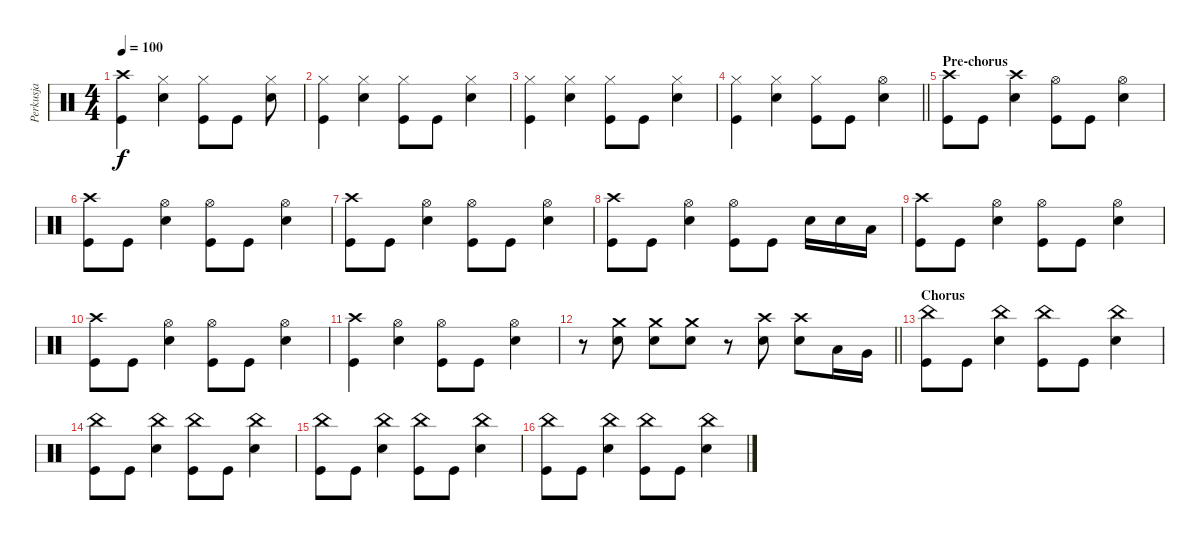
\track ("Perkusja" "Perkusja") {instrument percussion}
\staff {score}
\articulation defaults
\ts (4 4)
\tempo 100
\clef neutral
\ks c
("Crash high (hit)" "Kick (hit)").4{dy f} ("Hi-Hat (closed)" "Snare (hit) 2").4 ("Hi-Hat (closed)" "Kick (hit)").8 "Kick (hit)".8 ("Hi-Hat (closed)" "Snare (hit) 2").8 |
("Hi-Hat (closed)" "Kick (hit)").4 ("Hi-Hat (closed)" "Snare (hit) 2").4 ("Hi-Hat (closed)" "Kick (hit)").8 "Kick (hit)".8 ("Hi-Hat (closed)" "Snare (hit) 2").4 |
("Hi-Hat (closed)" "Kick (hit)").4 ("Hi-Hat (closed)" "Snare (hit) 2").4 ("Hi-Hat (closed)" "Kick (hit)").8 "Kick (hit)".8 ("Hi-Hat (closed)" "Snare (hit) 2").4 |
\barLineRight lightlight
("Hi-Hat (closed)" "Kick (hit)").4 ("Hi-Hat (closed)" "Snare (hit) 2").4 ("Kick (hit)" "Hi-Hat (closed)").8 "Kick (hit)".8 ("Hi-Hat (open)" "Snare (hit) 2").4 |
\section ("" "Pre-chorus")
("Crash high (hit)" "Kick (hit)").8 "Kick (hit)".8 ("Crash high (hit)" "Snare (hit) 2").4 ("Hi-Hat (open)" "Kick (hit)").8 "Kick (hit)".8 ("Hi-Hat (open)" "Snare (hit) 2").4 |
("Crash high (hit)" "Kick (hit)").8 "Kick (hit)".8 ("Hi-Hat (open)" "Snare (hit) 2").4 ("Hi-Hat (open)" "Kick (hit)").8 "Kick (hit)".8 ("Hi-Hat (open)" "Snare (hit) 2").4 |
("Crash high (hit)" "Kick (hit)").8 "Kick (hit)".8 ("Hi-Hat (open)" "Snare (hit) 2").4 ("Hi-Hat (open)" "Kick (hit)").8 "Kick (hit)".8 ("Hi-Hat (open)" "Snare (hit) 2").4 |
("Crash high (hit)" "Kick (hit)").8 "Kick (hit)".8 ("Hi-Hat (open)" "Snare (hit) 2").4 ("Hi-Hat (open)" "Kick (hit)").8 "Kick (hit)".8 "Snare (hit) 2".16 "Snare (hit) 2".16 "Low Tom (hit)".16 |
("Crash high (hit)" "Kick (hit)").8 "Kick (hit)".8 ("Hi-Hat (open)" "Snare (hit) 2").4 ("Hi-Hat (open)" "Kick (hit)").8 "Kick (hit)".8 ("Hi-Hat (open)" "Snare (hit) 2").4 |
("Crash high (hit)" "Kick (hit)").8 "Kick (hit)".8 ("Hi-Hat (open)" "Snare (hit) 2").4 ("Hi-Hat (open)" "Kick (hit)").8 "Kick (hit)".8 ("Hi-Hat (open)" "Snare (hit) 2").4 |
("Crash high (hit)" "Kick (hit)").4 ("Hi-Hat (open)" "Snare (hit) 2").4 ("Hi-Hat (open)" "Kick (hit)").8 "Kick (hit)".8 ("Hi-Hat (open)" "Snare (hit) 2").4 |
\barLineRight lightlight
r.8 ("Snare (hit) 2" "Crash medium (hit)").8 ("Snare (hit) 2" "Crash medium (hit)").8 ("Snare (hit) 2" "Crash medium (hit)").8 r.8 ("Snare (hit) 2" "Crash high (hit)").8 ("Snare (hit) 2" "Crash high (hit)").8 "Low Tom (hit)".16 "Very Low Tom (hit)".16 |
\section ("" "Chorus")
("China (hit)" "Kick (hit)").8 "Kick (hit)".8 ("China (hit)" "Snare (hit) 2").4 ("China (hit)" "Kick (hit)").8 "Kick (hit)".8 ("China (hit)" "Snare (hit) 2").4 |
("China (hit)" "Kick (hit)").8 "Kick (hit)".8 ("China (hit)" "Snare (hit) 2").4 ("China (hit)" "Kick (hit)").8 "Kick (hit)".8 ("China (hit)" "Snare (hit) 2").4 |
("China (hit)" "Kick (hit)").8 "Kick (hit)".8 ("China (hit)" "Snare (hit) 2").4 ("China (hit)" "Kick (hit)").8 "Kick (hit)".8 ("China (hit)" "Snare (hit) 2").4 |
("China (hit)" "Kick (hit)").8 "Kick (hit)".8 ("China (hit)" "Snare (hit) 2").4 ("China (hit)" "Kick (hit)").8 "Kick (hit)".8 ("China (hit)" "Snare (hit) 2").4
